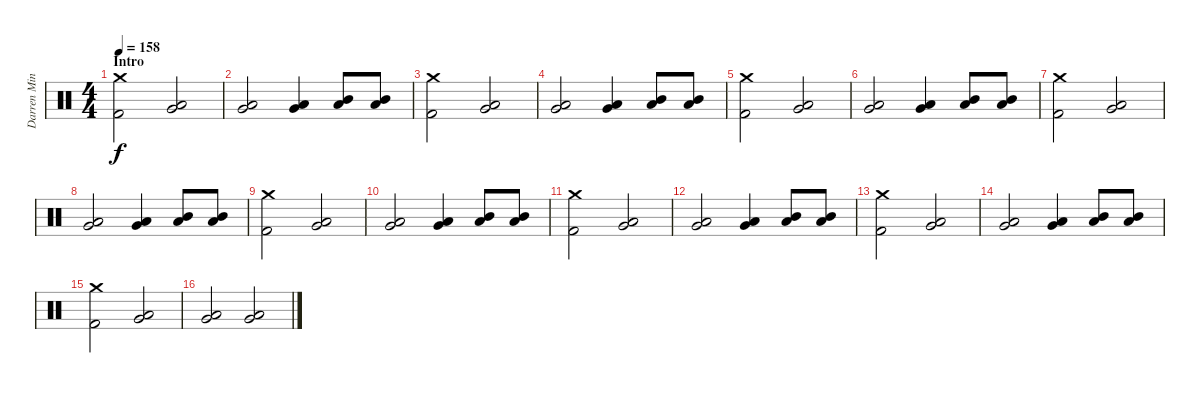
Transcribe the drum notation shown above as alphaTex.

\track ("Darren Minter" "Darren Min") {instrument percussion}
\staff {score}
\articulation defaults
\ts (4 4)
\section ("" "Intro")
\tempo 158
\clef neutral
\ks c
("Kick (hit) 2" "Crash medium (hit)").2{dy f} ("Low Tom (hit)" "Very Low Tom (hit)").2 |
("Low Tom (hit)" "Very Low Tom (hit)").2 ("Low Tom (hit)" "Very Low Tom (hit)").4 ("Mid Tom (hit)" "Low Tom (hit)").8 ("Mid Tom (hit)" "Low Tom (hit)").8 |
("Kick (hit) 2" "Crash medium (hit)").2 ("Low Tom (hit)" "Very Low Tom (hit)").2 |
("Low Tom (hit)" "Very Low Tom (hit)").2 ("Low Tom (hit)" "Very Low Tom (hit)").4 ("Mid Tom (hit)" "Low Tom (hit)").8 ("Mid Tom (hit)" "Low Tom (hit)").8 |
("Kick (hit) 2" "Crash medium (hit)").2 ("Low Tom (hit)" "Very Low Tom (hit)").2 |
("Low Tom (hit)" "Very Low Tom (hit)").2 ("Low Tom (hit)" "Very Low Tom (hit)").4 ("Mid Tom (hit)" "Low Tom (hit)").8 ("Mid Tom (hit)" "Low Tom (hit)").8 |
("Kick (hit) 2" "Crash medium (hit)").2 ("Low Tom (hit)" "Very Low Tom (hit)").2 |
("Low Tom (hit)" "Very Low Tom (hit)").2 ("Low Tom (hit)" "Very Low Tom (hit)").4 ("Mid Tom (hit)" "Low Tom (hit)").8 ("Mid Tom (hit)" "Low Tom (hit)").8 |
("Kick (hit) 2" "Crash medium (hit)").2 ("Low Tom (hit)" "Very Low Tom (hit)").2 |
("Low Tom (hit)" "Very Low Tom (hit)").2 ("Low Tom (hit)" "Very Low Tom (hit)").4 ("Mid Tom (hit)" "Low Tom (hit)").8 ("Mid Tom (hit)" "Low Tom (hit)").8 |
("Kick (hit) 2" "Crash medium (hit)").2 ("Low Tom (hit)" "Very Low Tom (hit)").2 |
("Low Tom (hit)" "Very Low Tom (hit)").2 ("Low Tom (hit)" "Very Low Tom (hit)").4 ("Mid Tom (hit)" "Low Tom (hit)").8 ("Mid Tom (hit)" "Low Tom (hit)").8 |
("Kick (hit) 2" "Crash medium (hit)").2 ("Low Tom (hit)" "Very Low Tom (hit)").2 |
("Low Tom (hit)" "Very Low Tom (hit)").2 ("Low Tom (hit)" "Very Low Tom (hit)").4 ("Mid Tom (hit)" "Low Tom (hit)").8 ("Mid Tom (hit)" "Low Tom (hit)").8 |
("Kick (hit) 2" "Crash medium (hit)").2 ("Low Tom (hit)" "Very Low Tom (hit)").2 |
("Low Tom (hit)" "Very Low Tom (hit)").2 ("Low Tom (hit)" "Very Low Tom (hit)").2
